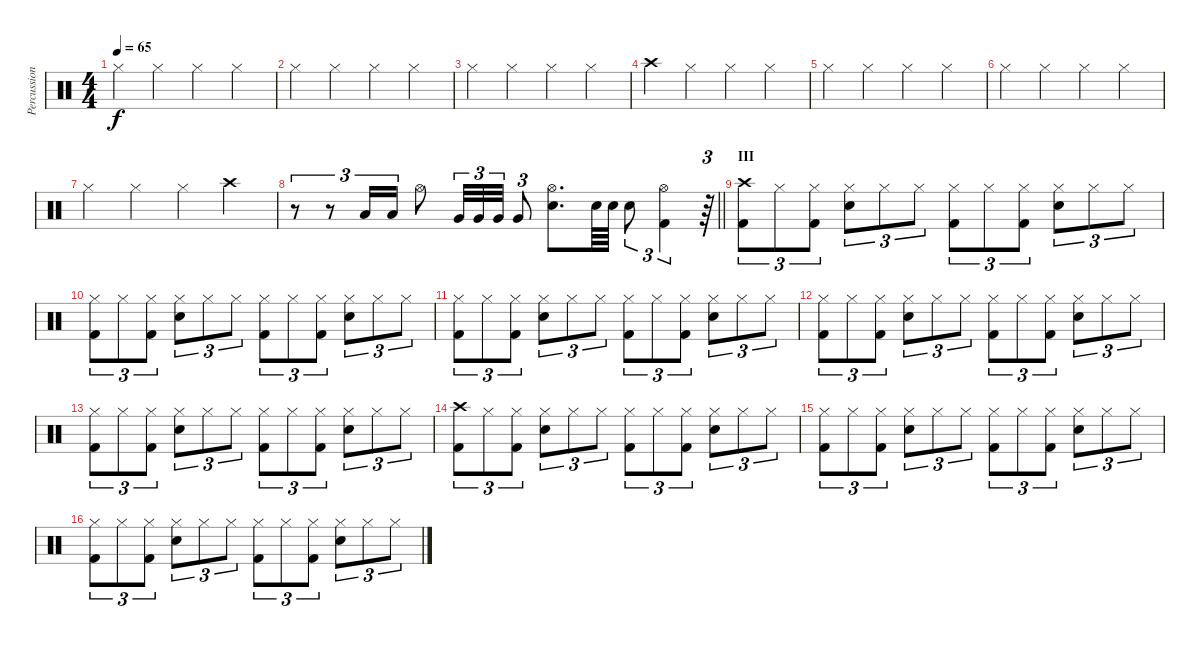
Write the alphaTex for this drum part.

\track ("Percussion" "Percussion") {instrument percussion}
\staff {score}
\articulation defaults
\ts (4 4)
\tempo 65
\clef neutral
\ks c "Hi-Hat (closed)".4{dy f} "Hi-Hat (closed)".4 "Hi-Hat (closed)".4 "Hi-Hat (closed)".4
|
"Hi-Hat (closed)".4 "Hi-Hat (closed)".4 "Hi-Hat (closed)".4 "Hi-Hat (closed)".4 |
"Hi-Hat (closed)".4 "Hi-Hat (closed)".4 "Hi-Hat (closed)".4 "Hi-Hat (closed)".4 |
"Crash high (hit)".4 "Hi-Hat (closed)".4 "Hi-Hat (closed)".4 "Hi-Hat (closed)".4 |
"Hi-Hat (closed)".4 "Hi-Hat (closed)".4 "Hi-Hat (closed)".4 "Hi-Hat (closed)".4 |
"Hi-Hat (closed)".4 "Hi-Hat (closed)".4 "Hi-Hat (closed)".4 "Hi-Hat (closed)".4 |
"Hi-Hat (closed)".4 "Hi-Hat (closed)".4 "Hi-Hat (closed)".4 "Crash high (hit)".4 |
\barLineRight lightlight
r.8{tu (3 2)} r.8{tu (3 2)} "Low Tom (hit)".16{tu (3 2)} "Low Tom (hit)".16{tu (3 2)} "Hi-Hat (open)".8 "Very Low Tom (hit)".32{tu (3 2)} "Very Low Tom (hit)".32{tu (3 2)} "Very Low Tom (hit)".32{tu (3 2)} "Very Low Tom (hit)".8{tu (3 2)} ("Hi-Hat (open)" "Snare (hit) 2").8{d} "Snare (hit) 2".64 "Snare (hit) 2".64 "Snare (hit) 2".8{tu (3 2)} ("Hi-Hat (open)" "Kick (hit) 2").4{tu (3 2)} r.64{tu (3 2)} |
\section ("" "III")
("Crash high (hit)" "Kick (hit) 2").8{tu (3 2)} "Hi-Hat (closed)".8{tu (3 2)} ("Hi-Hat (closed)" "Kick (hit) 2").8{tu (3 2)} ("Hi-Hat (closed)" "Snare (hit) 2").8{tu (3 2)} "Hi-Hat (closed)".8{tu (3 2)} "Hi-Hat (closed)".8{tu (3 2)} ("Hi-Hat (closed)" "Kick (hit) 2").8{tu (3 2)} "Hi-Hat (closed)".8{tu (3 2)} ("Hi-Hat (closed)" "Kick (hit) 2").8{tu (3 2)} ("Hi-Hat (closed)" "Snare (hit) 2").8{tu (3 2)} "Hi-Hat (closed)".8{tu (3 2)} "Hi-Hat (closed)".8{tu (3 2)} |
("Hi-Hat (closed)" "Kick (hit) 2").8{tu (3 2)} "Hi-Hat (closed)".8{tu (3 2)} ("Hi-Hat (closed)" "Kick (hit) 2").8{tu (3 2)} ("Hi-Hat (closed)" "Snare (hit) 2").8{tu (3 2)} "Hi-Hat (closed)".8{tu (3 2)} "Hi-Hat (closed)".8{tu (3 2)} ("Hi-Hat (closed)" "Kick (hit) 2").8{tu (3 2)} "Hi-Hat (closed)".8{tu (3 2)} ("Hi-Hat (closed)" "Kick (hit) 2").8{tu (3 2)} ("Hi-Hat (closed)" "Snare (hit) 2").8{tu (3 2)} "Hi-Hat (closed)".8{tu (3 2)} "Hi-Hat (closed)".8{tu (3 2)} |
("Hi-Hat (closed)" "Kick (hit) 2").8{tu (3 2)} "Hi-Hat (closed)".8{tu (3 2)} ("Hi-Hat (closed)" "Kick (hit) 2").8{tu (3 2)} ("Hi-Hat (closed)" "Snare (hit) 2").8{tu (3 2)} "Hi-Hat (closed)".8{tu (3 2)} "Hi-Hat (closed)".8{tu (3 2)} ("Hi-Hat (closed)" "Kick (hit) 2").8{tu (3 2)} "Hi-Hat (closed)".8{tu (3 2)} ("Hi-Hat (closed)" "Kick (hit) 2").8{tu (3 2)} ("Hi-Hat (closed)" "Snare (hit) 2").8{tu (3 2)} "Hi-Hat (closed)".8{tu (3 2)} "Hi-Hat (closed)".8{tu (3 2)} |
("Hi-Hat (closed)" "Kick (hit) 2").8{tu (3 2)} "Hi-Hat (closed)".8{tu (3 2)} ("Hi-Hat (closed)" "Kick (hit) 2").8{tu (3 2)} ("Hi-Hat (closed)" "Snare (hit) 2").8{tu (3 2)} "Hi-Hat (closed)".8{tu (3 2)} "Hi-Hat (closed)".8{tu (3 2)} ("Hi-Hat (closed)" "Kick (hit) 2").8{tu (3 2)} "Hi-Hat (closed)".8{tu (3 2)} ("Hi-Hat (closed)" "Kick (hit) 2").8{tu (3 2)} ("Hi-Hat (closed)" "Snare (hit) 2").8{tu (3 2)} "Hi-Hat (closed)".8{tu (3 2)} "Hi-Hat (closed)".8{tu (3 2)} |
("Hi-Hat (closed)" "Kick (hit) 2").8{tu (3 2)} "Hi-Hat (closed)".8{tu (3 2)} ("Hi-Hat (closed)" "Kick (hit) 2").8{tu (3 2)} ("Hi-Hat (closed)" "Snare (hit) 2").8{tu (3 2)} "Hi-Hat (closed)".8{tu (3 2)} "Hi-Hat (closed)".8{tu (3 2)} ("Hi-Hat (closed)" "Kick (hit) 2").8{tu (3 2)} "Hi-Hat (closed)".8{tu (3 2)} ("Hi-Hat (closed)" "Kick (hit) 2").8{tu (3 2)} ("Hi-Hat (closed)" "Snare (hit) 2").8{tu (3 2)} "Hi-Hat (closed)".8{tu (3 2)} "Hi-Hat (closed)".8{tu (3 2)} |
("Crash high (hit)" "Kick (hit) 2").8{tu (3 2)} "Hi-Hat (closed)".8{tu (3 2)} ("Hi-Hat (closed)" "Kick (hit) 2").8{tu (3 2)} ("Hi-Hat (closed)" "Snare (hit) 2").8{tu (3 2)} "Hi-Hat (closed)".8{tu (3 2)} "Hi-Hat (closed)".8{tu (3 2)} ("Hi-Hat (closed)" "Kick (hit) 2").8{tu (3 2)} "Hi-Hat (closed)".8{tu (3 2)} ("Hi-Hat (closed)" "Kick (hit) 2").8{tu (3 2)} ("Hi-Hat (closed)" "Snare (hit) 2").8{tu (3 2)} "Hi-Hat (closed)".8{tu (3 2)} "Hi-Hat (closed)".8{tu (3 2)} |
("Hi-Hat (closed)" "Kick (hit) 2").8{tu (3 2)} "Hi-Hat (closed)".8{tu (3 2)} ("Hi-Hat (closed)" "Kick (hit) 2").8{tu (3 2)} ("Hi-Hat (closed)" "Snare (hit) 2").8{tu (3 2)} "Hi-Hat (closed)".8{tu (3 2)} "Hi-Hat (closed)".8{tu (3 2)} ("Hi-Hat (closed)" "Kick (hit) 2").8{tu (3 2)} "Hi-Hat (closed)".8{tu (3 2)} ("Hi-Hat (closed)" "Kick (hit) 2").8{tu (3 2)} ("Hi-Hat (closed)" "Snare (hit) 2").8{tu (3 2)} "Hi-Hat (closed)".8{tu (3 2)} "Hi-Hat (closed)".8{tu (3 2)} |
("Hi-Hat (closed)" "Kick (hit) 2").8{tu (3 2)} "Hi-Hat (closed)".8{tu (3 2)} ("Hi-Hat (closed)" "Kick (hit) 2").8{tu (3 2)} ("Hi-Hat (closed)" "Snare (hit) 2").8{tu (3 2)} "Hi-Hat (closed)".8{tu (3 2)} "Hi-Hat (closed)".8{tu (3 2)} ("Hi-Hat (closed)" "Kick (hit) 2").8{tu (3 2)} "Hi-Hat (closed)".8{tu (3 2)} ("Hi-Hat (closed)" "Kick (hit) 2").8{tu (3 2)} ("Hi-Hat (closed)" "Snare (hit) 2").8{tu (3 2)} "Hi-Hat (closed)".8{tu (3 2)} "Hi-Hat (closed)".8{tu (3 2)}
